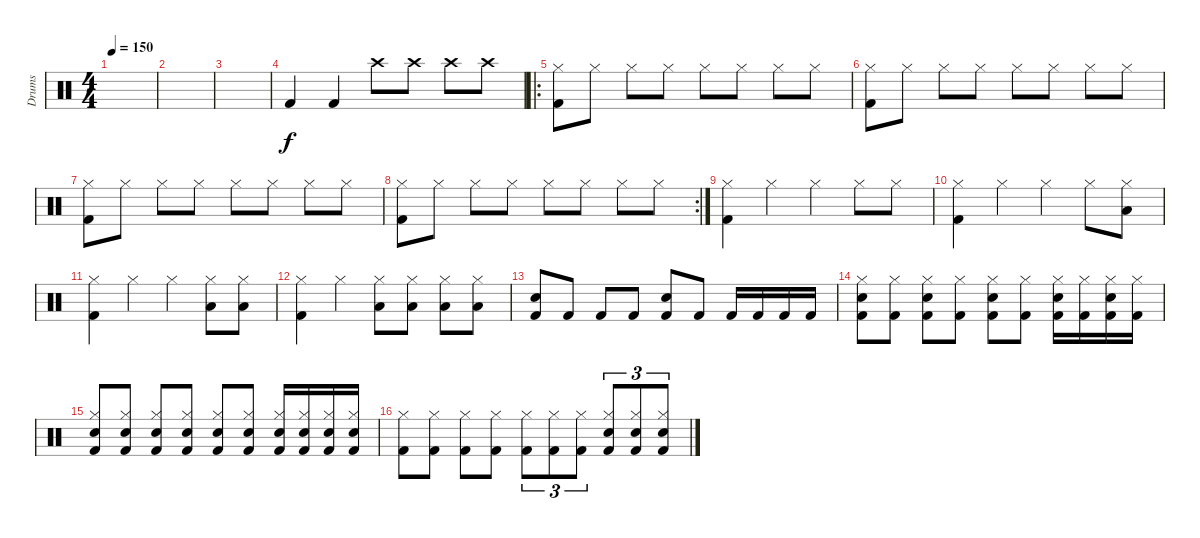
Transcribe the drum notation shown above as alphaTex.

\track ("Drums" "Drums") {instrument percussion}
\staff {score}
\articulation defaults
\ts (4 4)
\tempo 150
\clef neutral
\ks c
|
|
|
"Kick (hit) 2".4 "Kick (hit) 2".4 "Crash high (hit)".8 "Crash high (hit)".8 "Crash high (hit)".8 "Crash high (hit)".8 |
\ro
("Kick (hit) 2" "Hi-Hat (closed)").8 "Hi-Hat (closed)".8 "Hi-Hat (closed)".8 "Hi-Hat (closed)".8 "Hi-Hat (closed)".8 "Hi-Hat (closed)".8 "Hi-Hat (closed)".8 "Hi-Hat (closed)".8 |
("Kick (hit) 2" "Hi-Hat (closed)").8 "Hi-Hat (closed)".8 "Hi-Hat (closed)".8 "Hi-Hat (closed)".8 "Hi-Hat (closed)".8 "Hi-Hat (closed)".8 "Hi-Hat (closed)".8 "Hi-Hat (closed)".8 |
("Kick (hit) 2" "Hi-Hat (closed)").8 "Hi-Hat (closed)".8 "Hi-Hat (closed)".8 "Hi-Hat (closed)".8 "Hi-Hat (closed)".8 "Hi-Hat (closed)".8 "Hi-Hat (closed)".8 "Hi-Hat (closed)".8 |
\rc 2
("Kick (hit) 2" "Hi-Hat (closed)").8 "Hi-Hat (closed)".8 "Hi-Hat (closed)".8 "Hi-Hat (closed)".8 "Hi-Hat (closed)".8 "Hi-Hat (closed)".8 "Hi-Hat (closed)".8 "Hi-Hat (closed)".8 |
("Hi-Hat (closed)" "Kick (hit) 2").4 "Hi-Hat (closed)".4 "Hi-Hat (closed)".4 "Hi-Hat (closed)".8 "Hi-Hat (closed)".8 |
("Hi-Hat (closed)" "Kick (hit) 2").4 "Hi-Hat (closed)".4 "Hi-Hat (closed)".4 "Hi-Hat (closed)".8 ("Hi-Hat (closed)" "Low Floor Tom (hit)").8 |
("Hi-Hat (closed)" "Kick (hit) 2").4 "Hi-Hat (closed)".4 "Hi-Hat (closed)".4 ("Hi-Hat (closed)" "Low Floor Tom (hit)").8 ("Hi-Hat (closed)" "Low Floor Tom (hit)").8 |
("Hi-Hat (closed)" "Kick (hit) 2").4 "Hi-Hat (closed)".4 ("Hi-Hat (closed)" "Low Floor Tom (hit)").8 ("Hi-Hat (closed)" "Low Floor Tom (hit)").8 ("Hi-Hat (closed)" "Low Floor Tom (hit)").8 ("Hi-Hat (closed)" "Low Floor Tom (hit)").8 |
("Kick (hit) 2" "Snare (hit) 2").8 "Kick (hit) 2".8 "Kick (hit) 2".8 "Kick (hit) 2".8 ("Kick (hit) 2" "Snare (hit) 2").8 "Kick (hit) 2".8 "Kick (hit) 2".16 "Kick (hit) 2".16 "Kick (hit) 2".16 "Kick (hit) 2".16 |
("Hi-Hat (closed)" "Kick (hit) 2" "Snare (hit) 2").8 ("Hi-Hat (closed)" "Kick (hit) 2").8 ("Hi-Hat (closed)" "Kick (hit) 2" "Snare (hit) 2").8 ("Hi-Hat (closed)" "Kick (hit) 2").8 ("Hi-Hat (closed)" "Kick (hit) 2" "Snare (hit) 2").8 ("Hi-Hat (closed)" "Kick (hit) 2").8 ("Hi-Hat (closed)" "Kick (hit) 2" "Snare (hit) 2").16 ("Hi-Hat (closed)" "Kick (hit) 2").16 ("Hi-Hat (closed)" "Kick (hit) 2" "Snare (hit) 2").16 ("Hi-Hat (closed)" "Kick (hit) 2").16 |
("Hi-Hat (closed)" "Kick (hit) 2" "Snare (hit) 2").8 ("Hi-Hat (closed)" "Kick (hit) 2" "Snare (hit) 2").8 ("Hi-Hat (closed)" "Kick (hit) 2" "Snare (hit) 2").8 ("Hi-Hat (closed)" "Kick (hit) 2" "Snare (hit) 2").8 ("Hi-Hat (closed)" "Kick (hit) 2" "Snare (hit) 2").8 ("Hi-Hat (closed)" "Kick (hit) 2" "Snare (hit) 2").8 ("Hi-Hat (closed)" "Kick (hit) 2" "Snare (hit) 2").16 ("Hi-Hat (closed)" "Kick (hit) 2" "Snare (hit) 2").16 ("Hi-Hat (closed)" "Kick (hit) 2" "Snare (hit) 2").16 ("Hi-Hat (closed)" "Kick (hit) 2" "Snare (hit) 2").16 |
("Hi-Hat (closed)" "Kick (hit) 2").8 ("Hi-Hat (closed)" "Kick (hit) 2").8 ("Hi-Hat (closed)" "Kick (hit) 2").8 ("Hi-Hat (closed)" "Kick (hit) 2").8 ("Hi-Hat (closed)" "Kick (hit) 2").8{tu (3 2)} ("Hi-Hat (closed)" "Kick (hit) 2").8{tu (3 2)} ("Hi-Hat (closed)" "Kick (hit) 2").8{tu (3 2)} ("Hi-Hat (closed)" "Kick (hit) 2" "Snare (hit) 2").8{tu (3 2)} ("Hi-Hat (closed)" "Kick (hit) 2" "Snare (hit) 2").8{tu (3 2)} ("Hi-Hat (closed)" "Kick (hit) 2" "Snare (hit) 2").8{tu (3 2)}
